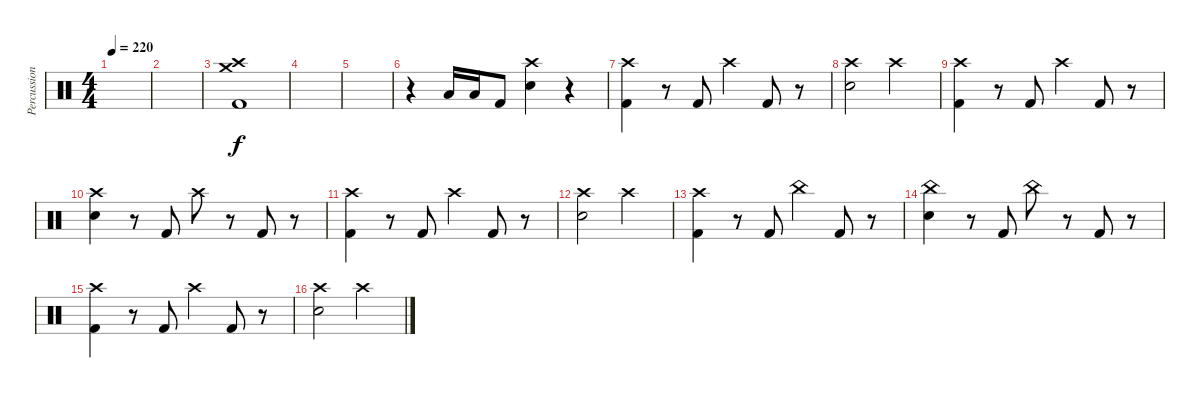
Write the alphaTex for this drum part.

\track ("Percussion" "Percussion") {instrument percussion}
\staff {score}
\articulation defaults
\ts (4 4)
\tempo 220
\clef neutral
\ks c
|
|
("Crash medium (hit)" "Crash high (hit)" "Kick (hit) 2").1 |
|
|
r.4 "Low Floor Tom (hit)".16 "Low Floor Tom (hit)".16 "Kick (hit) 2".8 ("Crash high (hit)" "Snare (hit) 2").4 r.4 |
("Crash high (hit)" "Kick (hit) 2").4 r.8 "Kick (hit) 2".8 "Crash high (hit)".4 "Kick (hit) 2".8 r.8 |
("Crash high (hit)" "Snare (hit) 2").2 "Crash high (hit)".2 |
("Crash high (hit)" "Kick (hit) 2").4 r.8 "Kick (hit) 2".8 "Crash high (hit)".4 "Kick (hit) 2".8 r.8 |
("Crash high (hit)" "Snare (hit) 2").4 r.8 "Kick (hit) 2".8 "Crash high (hit)".8 r.8 "Kick (hit) 2".8 r.8 |
("Crash high (hit)" "Kick (hit) 2").4 r.8 "Kick (hit) 2".8 "Crash high (hit)".4 "Kick (hit) 2".8 r.8 |
("Crash high (hit)" "Snare (hit) 2").2 "Crash high (hit)".2 |
("Crash high (hit)" "Kick (hit) 2").4 r.8 "Kick (hit) 2".8 "China (hit)".4 "Kick (hit) 2".8 r.8 |
("China (hit)" "Snare (hit) 2").4 r.8 "Kick (hit) 2".8 "China (hit)".8 r.8 "Kick (hit) 2".8 r.8 |
("Crash high (hit)" "Kick (hit) 2").4 r.8 "Kick (hit) 2".8 "Crash high (hit)".4 "Kick (hit) 2".8 r.8 |
("Crash high (hit)" "Snare (hit) 2").2 "Crash high (hit)".2
